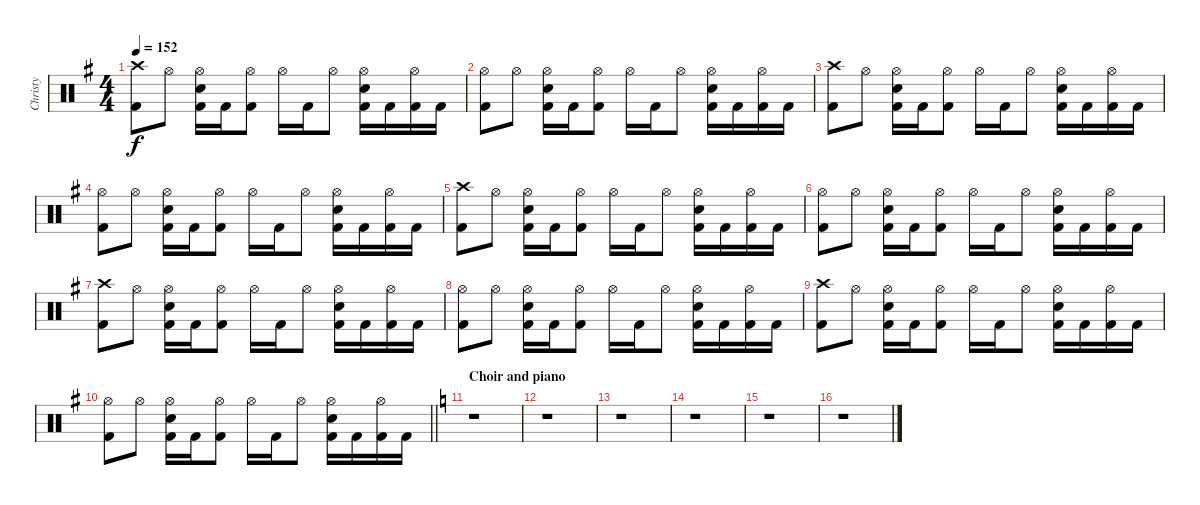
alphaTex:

\track ("Christy" "Christy") {instrument percussion}
\staff {score}
\articulation defaults
\ts (4 4)
\tempo 152
\clef neutral
\ks g
("Crash high (hit)" "Kick (hit) 2").8{dy f} "Hi-Hat (open)".8 ("Hi-Hat (open)" "Snare (hit) 2" "Kick (hit) 2").16 "Kick (hit) 2".16 ("Hi-Hat (open)" "Kick (hit) 2").8 "Hi-Hat (open)".16 "Kick (hit) 2".16 "Hi-Hat (open)".8 ("Hi-Hat (open)" "Snare (hit) 2" "Kick (hit) 2").16 "Kick (hit) 2".16 ("Hi-Hat (open)" "Kick (hit) 2").16 "Kick (hit) 2".16 |
("Hi-Hat (open)" "Kick (hit) 2").8 "Hi-Hat (open)".8 ("Hi-Hat (open)" "Snare (hit) 2" "Kick (hit) 2").16 "Kick (hit) 2".16 ("Hi-Hat (open)" "Kick (hit) 2").8 "Hi-Hat (open)".16 "Kick (hit) 2".16 "Hi-Hat (open)".8 ("Hi-Hat (open)" "Snare (hit) 2" "Kick (hit) 2").16 "Kick (hit) 2".16 ("Hi-Hat (open)" "Kick (hit) 2").16 "Kick (hit) 2".16 |
("Crash high (hit)" "Kick (hit) 2").8{volume 4} "Hi-Hat (open)".8 ("Hi-Hat (open)" "Snare (hit) 2" "Kick (hit) 2").16 "Kick (hit) 2".16 ("Hi-Hat (open)" "Kick (hit) 2").8 "Hi-Hat (open)".16 "Kick (hit) 2".16 "Hi-Hat (open)".8 ("Hi-Hat (open)" "Snare (hit) 2" "Kick (hit) 2").16 "Kick (hit) 2".16 ("Hi-Hat (open)" "Kick (hit) 2").16 "Kick (hit) 2".16 |
("Hi-Hat (open)" "Kick (hit) 2").8 "Hi-Hat (open)".8 ("Hi-Hat (open)" "Snare (hit) 2" "Kick (hit) 2").16 "Kick (hit) 2".16 ("Hi-Hat (open)" "Kick (hit) 2").8 "Hi-Hat (open)".16 "Kick (hit) 2".16 "Hi-Hat (open)".8 ("Hi-Hat (open)" "Snare (hit) 2" "Kick (hit) 2").16 "Kick (hit) 2".16 ("Hi-Hat (open)" "Kick (hit) 2").16 "Kick (hit) 2".16 |
("Crash high (hit)" "Kick (hit) 2").8 "Hi-Hat (open)".8 ("Hi-Hat (open)" "Snare (hit) 2" "Kick (hit) 2").16 "Kick (hit) 2".16 ("Hi-Hat (open)" "Kick (hit) 2").8 "Hi-Hat (open)".16 "Kick (hit) 2".16 "Hi-Hat (open)".8 ("Hi-Hat (open)" "Snare (hit) 2" "Kick (hit) 2").16 "Kick (hit) 2".16 ("Hi-Hat (open)" "Kick (hit) 2").16 "Kick (hit) 2".16 |
("Hi-Hat (open)" "Kick (hit) 2").8 "Hi-Hat (open)".8 ("Hi-Hat (open)" "Snare (hit) 2" "Kick (hit) 2").16 "Kick (hit) 2".16 ("Hi-Hat (open)" "Kick (hit) 2").8 "Hi-Hat (open)".16 "Kick (hit) 2".16 "Hi-Hat (open)".8 ("Hi-Hat (open)" "Snare (hit) 2" "Kick (hit) 2").16 "Kick (hit) 2".16 ("Hi-Hat (open)" "Kick (hit) 2").16 "Kick (hit) 2".16 |
("Crash high (hit)" "Kick (hit) 2").8{volume 0} "Hi-Hat (open)".8 ("Hi-Hat (open)" "Snare (hit) 2" "Kick (hit) 2").16 "Kick (hit) 2".16 ("Hi-Hat (open)" "Kick (hit) 2").8 "Hi-Hat (open)".16 "Kick (hit) 2".16 "Hi-Hat (open)".8 ("Hi-Hat (open)" "Snare (hit) 2" "Kick (hit) 2").16 "Kick (hit) 2".16 ("Hi-Hat (open)" "Kick (hit) 2").16 "Kick (hit) 2".16 |
("Hi-Hat (open)" "Kick (hit) 2").8 "Hi-Hat (open)".8 ("Hi-Hat (open)" "Snare (hit) 2" "Kick (hit) 2").16 "Kick (hit) 2".16 ("Hi-Hat (open)" "Kick (hit) 2").8 "Hi-Hat (open)".16 "Kick (hit) 2".16 "Hi-Hat (open)".8 ("Hi-Hat (open)" "Snare (hit) 2" "Kick (hit) 2").16 "Kick (hit) 2".16 ("Hi-Hat (open)" "Kick (hit) 2").16 "Kick (hit) 2".16 |
("Crash high (hit)" "Kick (hit) 2").8 "Hi-Hat (open)".8 ("Hi-Hat (open)" "Snare (hit) 2" "Kick (hit) 2").16 "Kick (hit) 2".16 ("Hi-Hat (open)" "Kick (hit) 2").8 "Hi-Hat (open)".16 "Kick (hit) 2".16 "Hi-Hat (open)".8 ("Hi-Hat (open)" "Snare (hit) 2" "Kick (hit) 2").16 "Kick (hit) 2".16 ("Hi-Hat (open)" "Kick (hit) 2").16 "Kick (hit) 2".16 |
\barLineRight lightlight
("Hi-Hat (open)" "Kick (hit) 2").8 "Hi-Hat (open)".8 ("Hi-Hat (open)" "Snare (hit) 2" "Kick (hit) 2").16 "Kick (hit) 2".16 ("Hi-Hat (open)" "Kick (hit) 2").8 "Hi-Hat (open)".16 "Kick (hit) 2".16 "Hi-Hat (open)".8 ("Hi-Hat (open)" "Snare (hit) 2" "Kick (hit) 2").16 "Kick (hit) 2".16 ("Hi-Hat (open)" "Kick (hit) 2").16 "Kick (hit) 2".16 |
\section ("" "Choir and piano")
\ks c
r.1 |
r.1 |
r.1 |
r.1 |
r.1 |
r.1
